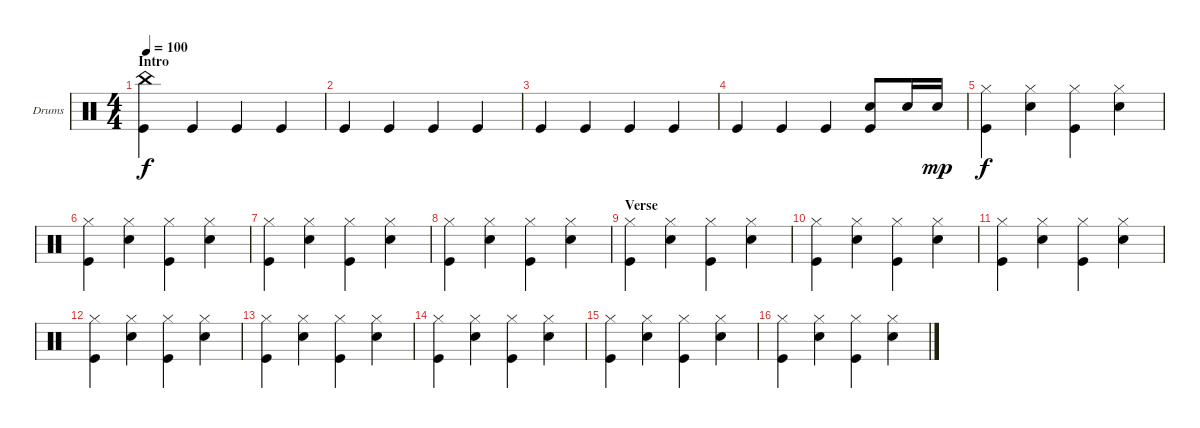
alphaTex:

\defaultSystemsLayout 4
\bracketExtendMode groupsimilarinstruments
\firstSystemTrackNameOrientation horizontal
\otherSystemsTrackNameOrientation horizontal
\track ("Drumkit" "Drums") {instrument percussion}
\staff {score}
\articulation defaults
\ts (4 4)
\section ("" "Intro")
\tempo 100
\clef neutral
\ks c
("Kick (hit)" "China (hit)").4{dy f} "Kick (hit)".4 "Kick (hit)".4 "Kick (hit)".4 |
"Kick (hit)".4 "Kick (hit)".4 "Kick (hit)".4 "Kick (hit)".4 |
"Kick (hit)".4 "Kick (hit)".4 "Kick (hit)".4 "Kick (hit)".4 |
"Kick (hit)".4 "Kick (hit)".4 "Kick (hit)".4 ("Kick (hit)" "Snare (hit) 2").8 "Snare (hit) 2".16 "Snare (hit) 2".16{dy mp} |
("Kick (hit)" "Hi-Hat (closed)").4{dy f} ("Snare (hit) 2" "Hi-Hat (closed)").4 ("Hi-Hat (closed)" "Kick (hit)").4 ("Hi-Hat (closed)" "Snare (hit) 2").4 |
("Kick (hit)" "Hi-Hat (closed)").4 ("Snare (hit) 2" "Hi-Hat (closed)").4 ("Hi-Hat (closed)" "Kick (hit)").4 ("Hi-Hat (closed)" "Snare (hit) 2").4 |
("Kick (hit)" "Hi-Hat (closed)").4 ("Snare (hit) 2" "Hi-Hat (closed)").4 ("Hi-Hat (closed)" "Kick (hit)").4 ("Hi-Hat (closed)" "Snare (hit) 2").4 |
("Kick (hit)" "Hi-Hat (closed)").4 ("Snare (hit) 2" "Hi-Hat (closed)").4 ("Hi-Hat (closed)" "Kick (hit)").4 ("Hi-Hat (closed)" "Snare (hit) 2").4 |
\section ("" "Verse")
("Kick (hit)" "Hi-Hat (closed)").4 ("Snare (hit) 2" "Hi-Hat (closed)").4 ("Hi-Hat (closed)" "Kick (hit)").4 ("Hi-Hat (closed)" "Snare (hit) 2").4 |
("Kick (hit)" "Hi-Hat (closed)").4 ("Snare (hit) 2" "Hi-Hat (closed)").4 ("Hi-Hat (closed)" "Kick (hit)").4 ("Hi-Hat (closed)" "Snare (hit) 2").4 |
("Kick (hit)" "Hi-Hat (closed)").4 ("Snare (hit) 2" "Hi-Hat (closed)").4 ("Hi-Hat (closed)" "Kick (hit)").4 ("Hi-Hat (closed)" "Snare (hit) 2").4 |
("Kick (hit)" "Hi-Hat (closed)").4 ("Snare (hit) 2" "Hi-Hat (closed)").4 ("Hi-Hat (closed)" "Kick (hit)").4 ("Hi-Hat (closed)" "Snare (hit) 2").4 |
("Kick (hit)" "Hi-Hat (closed)").4 ("Snare (hit) 2" "Hi-Hat (closed)").4 ("Hi-Hat (closed)" "Kick (hit)").4 ("Hi-Hat (closed)" "Snare (hit) 2").4 |
("Kick (hit)" "Hi-Hat (closed)").4 ("Snare (hit) 2" "Hi-Hat (closed)").4 ("Hi-Hat (closed)" "Kick (hit)").4 ("Hi-Hat (closed)" "Snare (hit) 2").4 |
("Kick (hit)" "Hi-Hat (closed)").4 ("Snare (hit) 2" "Hi-Hat (closed)").4 ("Hi-Hat (closed)" "Kick (hit)").4 ("Hi-Hat (closed)" "Snare (hit) 2").4 |
("Kick (hit)" "Hi-Hat (closed)").4 ("Snare (hit) 2" "Hi-Hat (closed)").4 ("Hi-Hat (closed)" "Kick (hit)").4 ("Hi-Hat (closed)" "Snare (hit) 2").4
